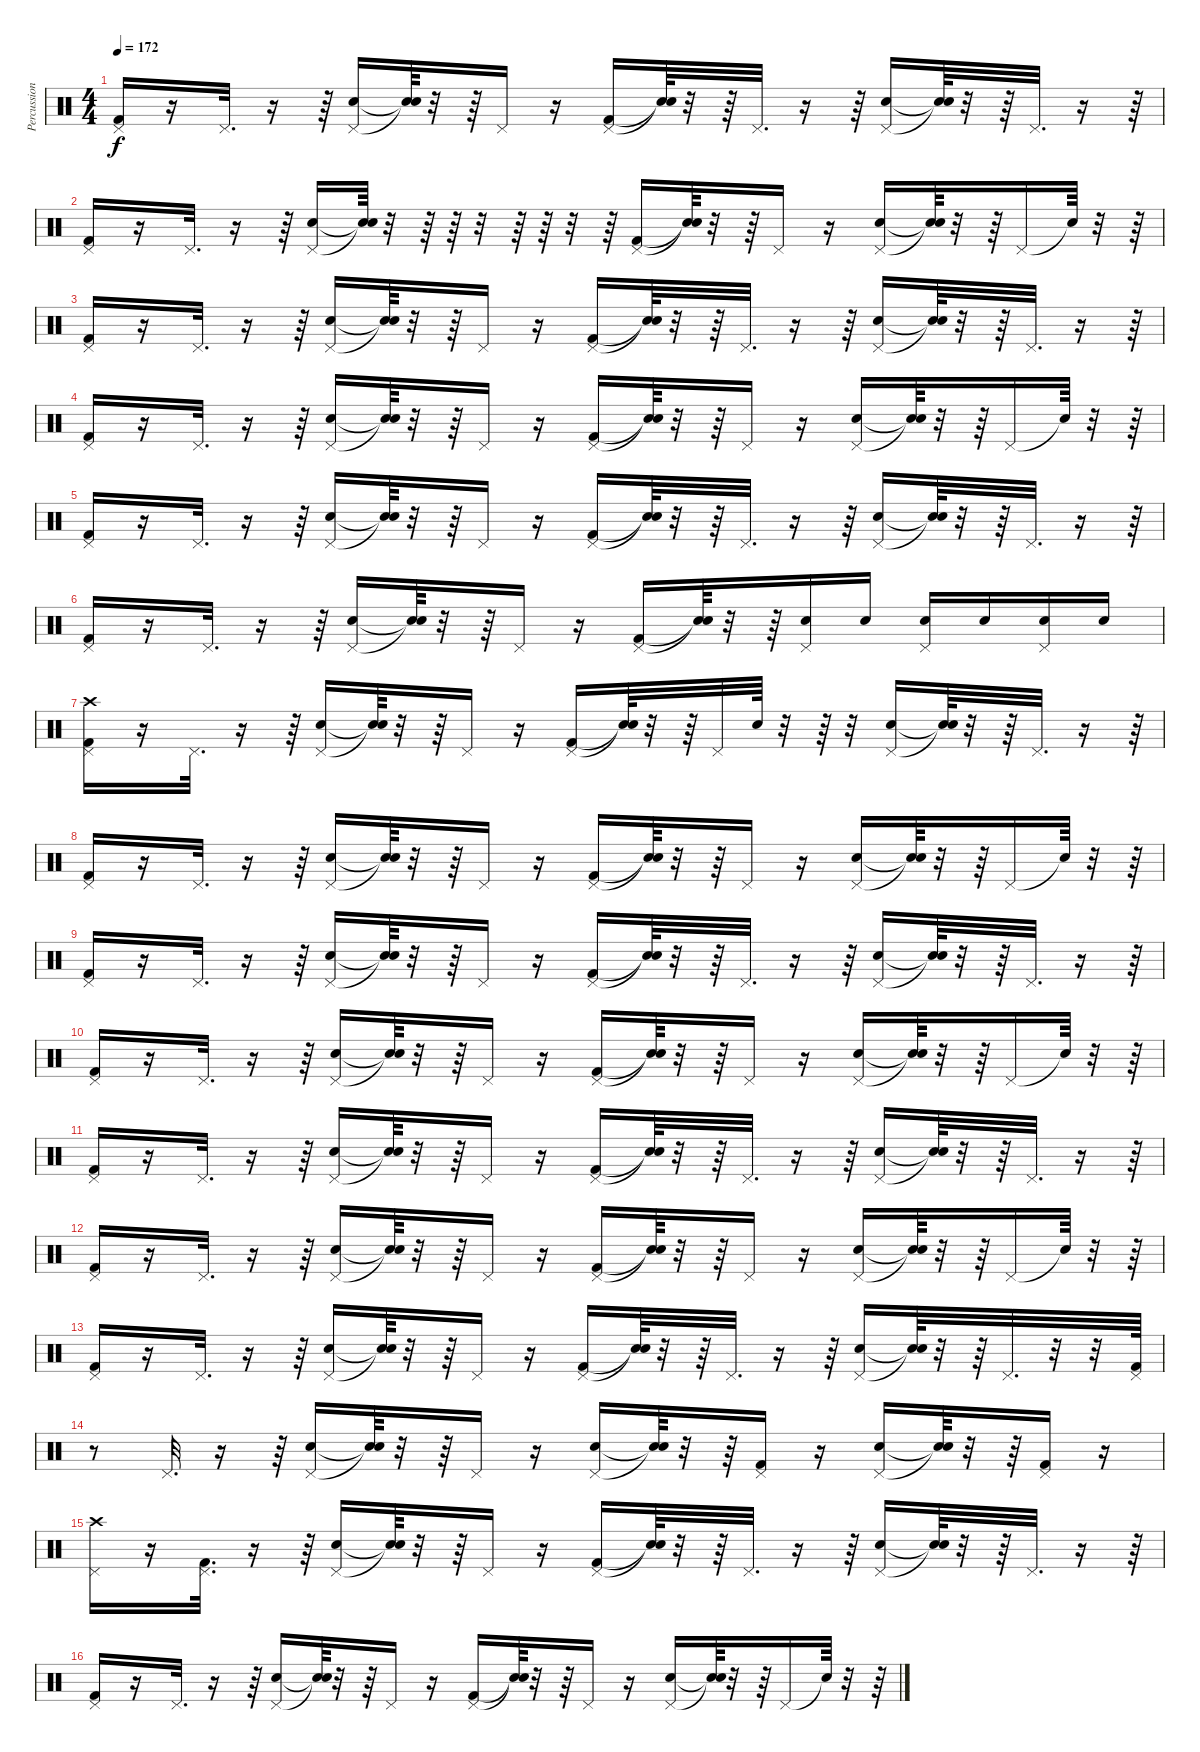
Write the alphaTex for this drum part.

\track ("Percussions" "Percussion") {instrument percussion}
\staff {score}
\articulation defaults
\ts (4 4)
\tempo 172
\clef neutral
\ks c
("Pedal Hi-Hat (hit)" "Kick (hit) 2").16{dy f} r.16 "Pedal Hi-Hat (hit)".32{d} r.16 r.64 ("Pedal Hi-Hat (hit)" "Snare (hit) 2").16 ("Snare (hit)"{t} "Snare (hit)"{t}).64 r.32 r.64 "Pedal Hi-Hat (hit)".16 r.16 ("Pedal Hi-Hat (hit)" "Kick (hit) 2").16 ("Snare (hit)"{t} "Snare (hit)"{t}).64 r.32 r.64 "Pedal Hi-Hat (hit)".32{d} r.16 r.64 ("Pedal Hi-Hat (hit)" "Snare (hit) 2").16 ("Snare (hit)"{t} "Snare (hit)"{t}).64 r.32 r.64 "Pedal Hi-Hat (hit)".32{d} r.16 r.64 |
("Pedal Hi-Hat (hit)" "Kick (hit) 2").16 r.16 "Pedal Hi-Hat (hit)".32{d} r.16 r.64 ("Pedal Hi-Hat (hit)" "Snare (hit) 2").16 ("Snare (hit)"{t} "Snare (hit)"{t}).64 r.32 r.64 r.64 r.32 r.64 r.64 r.32 r.64 ("Pedal Hi-Hat (hit)" "Kick (hit) 2").16 ("Snare (hit)"{t} "Snare (hit)"{t}).64 r.32 r.64 "Pedal Hi-Hat (hit)".16 r.16 ("Pedal Hi-Hat (hit)" "Snare (hit) 2").16 ("Snare (hit)"{t} "Snare (hit)"{t}).64 r.32 r.64 "Pedal Hi-Hat (hit)".16 "Snare (hit)"{t}.64 r.32 r.64 |
("Pedal Hi-Hat (hit)" "Kick (hit) 2").16 r.16 "Pedal Hi-Hat (hit)".32{d} r.16 r.64 ("Pedal Hi-Hat (hit)" "Snare (hit) 2").16 ("Snare (hit)"{t} "Snare (hit)"{t}).64 r.32 r.64 "Pedal Hi-Hat (hit)".16 r.16 ("Pedal Hi-Hat (hit)" "Kick (hit) 2").16 ("Snare (hit)"{t} "Snare (hit)"{t}).64 r.32 r.64 "Pedal Hi-Hat (hit)".32{d} r.16 r.64 ("Pedal Hi-Hat (hit)" "Snare (hit) 2").16 ("Snare (hit)"{t} "Snare (hit)"{t}).64 r.32 r.64 "Pedal Hi-Hat (hit)".32{d} r.16 r.64 |
("Pedal Hi-Hat (hit)" "Kick (hit) 2").16 r.16 "Pedal Hi-Hat (hit)".32{d} r.16 r.64 ("Pedal Hi-Hat (hit)" "Snare (hit) 2").16 ("Snare (hit)"{t} "Snare (hit)"{t}).64 r.32 r.64 "Pedal Hi-Hat (hit)".16 r.16 ("Pedal Hi-Hat (hit)" "Kick (hit) 2").16 ("Snare (hit)"{t} "Snare (hit)"{t}).64 r.32 r.64 "Pedal Hi-Hat (hit)".16 r.16 ("Pedal Hi-Hat (hit)" "Snare (hit) 2").16 ("Snare (hit)"{t} "Snare (hit)"{t}).64 r.32 r.64 "Pedal Hi-Hat (hit)".16 "Snare (hit)"{t}.64 r.32 r.64 |
("Pedal Hi-Hat (hit)" "Kick (hit) 2").16 r.16 "Pedal Hi-Hat (hit)".32{d} r.16 r.64 ("Pedal Hi-Hat (hit)" "Snare (hit) 2").16 ("Snare (hit)"{t} "Snare (hit)"{t}).64 r.32 r.64 "Pedal Hi-Hat (hit)".16 r.16 ("Pedal Hi-Hat (hit)" "Kick (hit) 2").16 ("Snare (hit)"{t} "Snare (hit)"{t}).64 r.32 r.64 "Pedal Hi-Hat (hit)".32{d} r.16 r.64 ("Pedal Hi-Hat (hit)" "Snare (hit) 2").16 ("Snare (hit)"{t} "Snare (hit)"{t}).64 r.32 r.64 "Pedal Hi-Hat (hit)".32{d} r.16 r.64 |
("Pedal Hi-Hat (hit)" "Kick (hit) 2").16 r.16 "Pedal Hi-Hat (hit)".32{d} r.16 r.64 ("Pedal Hi-Hat (hit)" "Snare (hit) 2").16 ("Snare (hit)"{t} "Snare (hit)"{t}).64 r.32 r.64 "Pedal Hi-Hat (hit)".16 r.16 ("Pedal Hi-Hat (hit)" "Kick (hit) 2").16 ("Snare (hit)"{t} "Snare (hit)"{t}).64 r.32 r.64 ("Pedal Hi-Hat (hit)" "Snare (hit) 2").16 "Snare (hit) 2".16 ("Snare (hit) 2" "Pedal Hi-Hat (hit)").16 "Snare (hit) 2".16 ("Snare (hit) 2" "Pedal Hi-Hat (hit)").16 "Snare (hit) 2".16 |
("Pedal Hi-Hat (hit)" "Crash high (hit)" "Kick (hit) 2").16 r.16 "Pedal Hi-Hat (hit)".32{d} r.16 r.64 ("Pedal Hi-Hat (hit)" "Snare (hit) 2").16 ("Snare (hit)"{t} "Snare (hit)"{t}).64 r.32 r.64 "Pedal Hi-Hat (hit)".16 r.16 ("Pedal Hi-Hat (hit)" "Kick (hit) 2").16 ("Snare (hit)"{t} "Snare (hit)"{t}).64 r.32 r.64 "Pedal Hi-Hat (hit)".32 "Snare (hit)".64 r.32 r.64 r.32 ("Pedal Hi-Hat (hit)" "Snare (hit) 2").16 ("Snare (hit)"{t} "Snare (hit)"{t}).64 r.32 r.64 "Pedal Hi-Hat (hit)".32{d} r.16 r.64 |
("Pedal Hi-Hat (hit)" "Kick (hit) 2").16 r.16 "Pedal Hi-Hat (hit)".32{d} r.16 r.64 ("Pedal Hi-Hat (hit)" "Snare (hit) 2").16 ("Snare (hit)"{t} "Snare (hit)"{t}).64 r.32 r.64 "Pedal Hi-Hat (hit)".16 r.16 ("Pedal Hi-Hat (hit)" "Kick (hit) 2").16 ("Snare (hit)"{t} "Snare (hit)"{t}).64 r.32 r.64 "Pedal Hi-Hat (hit)".16 r.16 ("Pedal Hi-Hat (hit)" "Snare (hit) 2").16 ("Snare (hit)"{t} "Snare (hit)"{t}).64 r.32 r.64 "Pedal Hi-Hat (hit)".16 "Snare (hit)"{t}.64 r.32 r.64 |
("Pedal Hi-Hat (hit)" "Kick (hit) 2").16 r.16 "Pedal Hi-Hat (hit)".32{d} r.16 r.64 ("Pedal Hi-Hat (hit)" "Snare (hit) 2").16 ("Snare (hit)"{t} "Snare (hit)"{t}).64 r.32 r.64 "Pedal Hi-Hat (hit)".16 r.16 ("Pedal Hi-Hat (hit)" "Kick (hit) 2").16 ("Snare (hit)"{t} "Snare (hit)"{t}).64 r.32 r.64 "Pedal Hi-Hat (hit)".32{d} r.16 r.64 ("Pedal Hi-Hat (hit)" "Snare (hit) 2").16 ("Snare (hit)"{t} "Snare (hit)"{t}).64 r.32 r.64 "Pedal Hi-Hat (hit)".32{d} r.16 r.64 |
("Pedal Hi-Hat (hit)" "Kick (hit) 2").16 r.16 "Pedal Hi-Hat (hit)".32{d} r.16 r.64 ("Pedal Hi-Hat (hit)" "Snare (hit) 2").16 ("Snare (hit)"{t} "Snare (hit)"{t}).64 r.32 r.64 "Pedal Hi-Hat (hit)".16 r.16 ("Pedal Hi-Hat (hit)" "Kick (hit) 2").16 ("Snare (hit)"{t} "Snare (hit)"{t}).64 r.32 r.64 "Pedal Hi-Hat (hit)".16 r.16 ("Pedal Hi-Hat (hit)" "Snare (hit) 2").16 ("Snare (hit)"{t} "Snare (hit)"{t}).64 r.32 r.64 "Pedal Hi-Hat (hit)".16 "Snare (hit)"{t}.64 r.32 r.64 |
("Pedal Hi-Hat (hit)" "Kick (hit) 2").16 r.16 "Pedal Hi-Hat (hit)".32{d} r.16 r.64 ("Pedal Hi-Hat (hit)" "Snare (hit) 2").16 ("Snare (hit)"{t} "Snare (hit)"{t}).64 r.32 r.64 "Pedal Hi-Hat (hit)".16 r.16 ("Pedal Hi-Hat (hit)" "Kick (hit) 2").16 ("Snare (hit)"{t} "Snare (hit)"{t}).64 r.32 r.64 "Pedal Hi-Hat (hit)".32{d} r.16 r.64 ("Pedal Hi-Hat (hit)" "Snare (hit) 2").16 ("Snare (hit)"{t} "Snare (hit)"{t}).64 r.32 r.64 "Pedal Hi-Hat (hit)".32{d} r.16 r.64 |
("Pedal Hi-Hat (hit)" "Kick (hit) 2").16 r.16 "Pedal Hi-Hat (hit)".32{d} r.16 r.64 ("Pedal Hi-Hat (hit)" "Snare (hit) 2").16 ("Snare (hit)"{t} "Snare (hit)"{t}).64 r.32 r.64 "Pedal Hi-Hat (hit)".16 r.16 ("Pedal Hi-Hat (hit)" "Kick (hit) 2").16 ("Snare (hit)"{t} "Snare (hit)"{t}).64 r.32 r.64 "Pedal Hi-Hat (hit)".16 r.16 ("Pedal Hi-Hat (hit)" "Snare (hit) 2").16 ("Snare (hit)"{t} "Snare (hit)"{t}).64 r.32 r.64 "Pedal Hi-Hat (hit)".16 "Snare (hit)"{t}.64 r.32 r.64 |
("Pedal Hi-Hat (hit)" "Kick (hit) 2").16 r.16 "Pedal Hi-Hat (hit)".32{d} r.16 r.64 ("Pedal Hi-Hat (hit)" "Snare (hit) 2").16 ("Snare (hit)"{t} "Snare (hit)"{t}).64 r.32 r.64 "Pedal Hi-Hat (hit)".16 r.16 ("Pedal Hi-Hat (hit)" "Kick (hit) 2").16 ("Snare (hit)"{t} "Snare (hit)"{t}).64 r.32 r.64 "Pedal Hi-Hat (hit)".32{d} r.16 r.64 ("Pedal Hi-Hat (hit)" "Snare (hit) 2").16 ("Snare (hit)"{t} "Snare (hit)"{t}).64 r.32 r.64 "Pedal Hi-Hat (hit)".32{d} r.32 r.32 ("Pedal Hi-Hat (hit)" "Kick (hit) 2").64 |
r.8 "Pedal Hi-Hat (hit)".32{d} r.16 r.64 ("Pedal Hi-Hat (hit)" "Snare (hit) 2").16 ("Snare (hit)"{t} "Snare (hit)"{t}).64 r.32 r.64 "Pedal Hi-Hat (hit)".16 r.16 ("Pedal Hi-Hat (hit)" "Snare (hit) 2").16 ("Snare (hit)"{t} "Snare (hit)"{t}).64 r.32 r.64 ("Pedal Hi-Hat (hit)" "Kick (hit) 2").16 r.16 ("Pedal Hi-Hat (hit)" "Snare (hit) 2").16 ("Snare (hit)"{t} "Snare (hit)"{t}).64 r.32 r.64 ("Kick (hit) 2" "Pedal Hi-Hat (hit)").16 r.16 |
("Pedal Hi-Hat (hit)" "Crash high (hit)").16 r.16 ("Pedal Hi-Hat (hit)" "Kick (hit) 2").32{d} r.16 r.64 ("Pedal Hi-Hat (hit)" "Snare (hit) 2").16 ("Snare (hit)"{t} "Snare (hit)"{t}).64 r.32 r.64 "Pedal Hi-Hat (hit)".16 r.16 ("Pedal Hi-Hat (hit)" "Kick (hit) 2").16 ("Snare (hit)"{t} "Snare (hit)"{t}).64 r.32 r.64 "Pedal Hi-Hat (hit)".32{d} r.16 r.64 ("Pedal Hi-Hat (hit)" "Snare (hit) 2").16 ("Snare (hit)"{t} "Snare (hit)"{t}).64 r.32 r.64 "Pedal Hi-Hat (hit)".32{d} r.16 r.64 |
("Pedal Hi-Hat (hit)" "Kick (hit) 2").16 r.16 "Pedal Hi-Hat (hit)".32{d} r.16 r.64 ("Pedal Hi-Hat (hit)" "Snare (hit) 2").16 ("Snare (hit)"{t} "Snare (hit)"{t}).64 r.32 r.64 "Pedal Hi-Hat (hit)".16 r.16 ("Pedal Hi-Hat (hit)" "Kick (hit) 2").16 ("Snare (hit)"{t} "Snare (hit)"{t}).64 r.32 r.64 "Pedal Hi-Hat (hit)".16 r.16 ("Pedal Hi-Hat (hit)" "Snare (hit) 2").16 ("Snare (hit)"{t} "Snare (hit)"{t}).64 r.32 r.64 "Pedal Hi-Hat (hit)".16 "Snare (hit)"{t}.64 r.32 r.64
